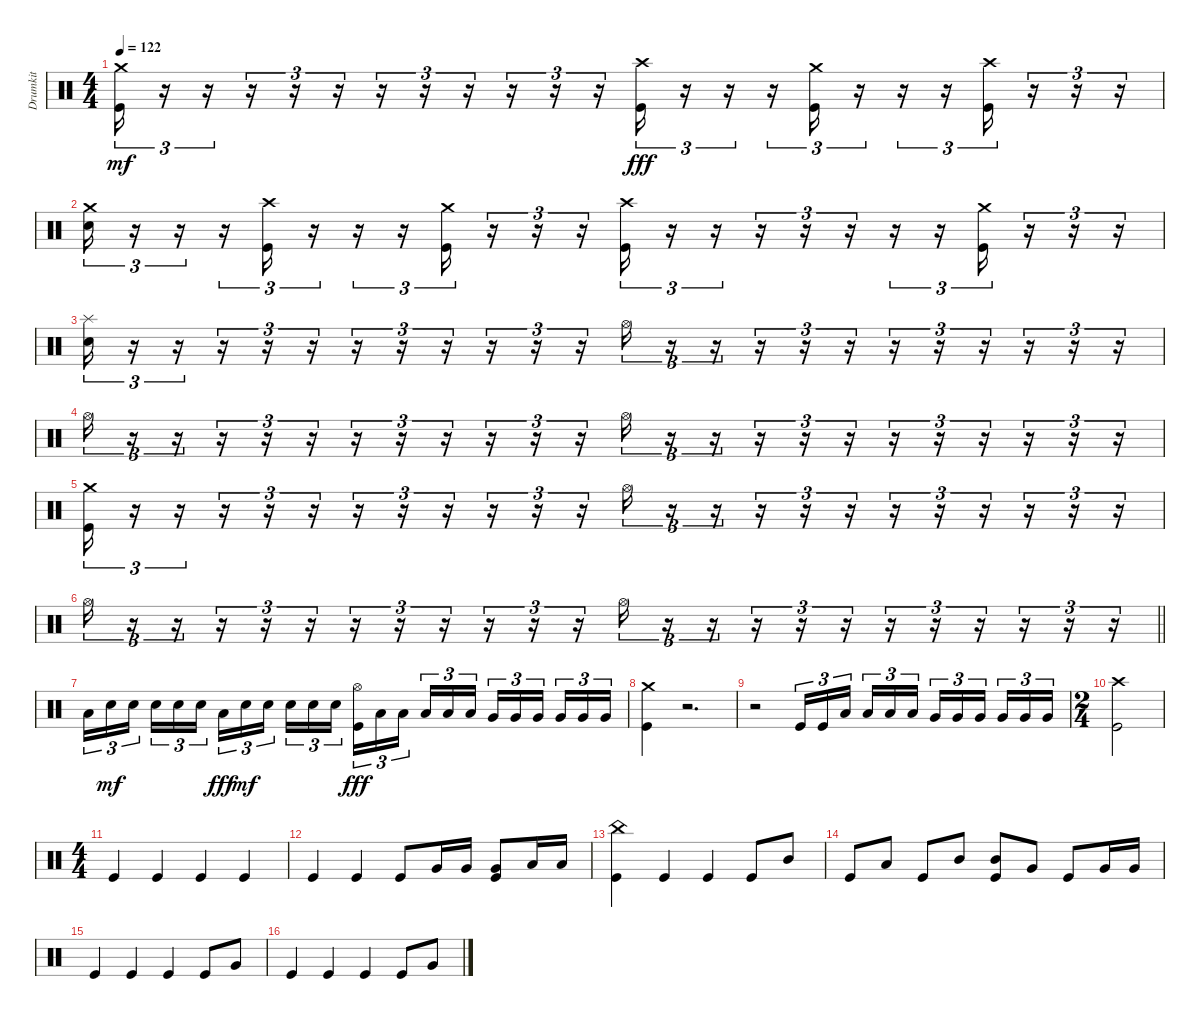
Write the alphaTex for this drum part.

\track ("Drumkit" "Drumkit") {mute instrument percussion}
\staff {score}
\articulation defaults
\ts (4 4)
\tempo 122
\clef neutral
\ks c
("Kick (hit)" "Crash medium (hit)").16{tu (3 2) dy mf} r.16{tu (3 2)} r.16{tu (3 2)} r.16{tu (3 2)} r.16{tu (3 2)} r.16{tu (3 2)} r.16{tu (3 2)} r.16{tu (3 2)} r.16{tu (3 2)} r.16{tu (3 2)} r.16{tu (3 2)} r.16{tu (3 2)} ("Kick (hit)" "Crash high (hit)").16{tu (3 2) dy fff} r.16{tu (3 2)} r.16{tu (3 2)} r.16{tu (3 2)} ("Kick (hit)" "Crash medium (hit)").16{tu (3 2)} r.16{tu (3 2)} r.16{tu (3 2)} r.16{tu (3 2)} ("Kick (hit)" "Crash high (hit)").16{tu (3 2)} r.16{tu (3 2)} r.16{tu (3 2)} r.16{tu (3 2)} |
("Crash medium (hit)" "Snare (hit) 2").16{tu (3 2)} r.16{tu (3 2)} r.16{tu (3 2)} r.16{tu (3 2)} ("Kick (hit)" "Crash high (hit)").16{tu (3 2)} r.16{tu (3 2)} r.16{tu (3 2)} r.16{tu (3 2)} ("Kick (hit)" "Crash medium (hit)").16{tu (3 2)} r.16{tu (3 2)} r.16{tu (3 2)} r.16{tu (3 2)} ("Kick (hit)" "Crash high (hit)").16{tu (3 2)} r.16{tu (3 2)} r.16{tu (3 2)} r.16{tu (3 2)} r.16{tu (3 2)} r.16{tu (3 2)} r.16{tu (3 2)} r.16{tu (3 2)} ("Kick (hit)" "Crash medium (hit)").16{tu (3 2)} r.16{tu (3 2)} r.16{tu (3 2)} r.16{tu (3 2)} |
("Splash (hit)" "Snare (hit) 2").16{tu (3 2)} r.16{tu (3 2)} r.16{tu (3 2)} r.16{tu (3 2)} r.16{tu (3 2)} r.16{tu (3 2)} r.16{tu (3 2)} r.16{tu (3 2)} r.16{tu (3 2)} r.16{tu (3 2)} r.16{tu (3 2)} r.16{tu (3 2)} "Hi-Hat (open)".16{tu (3 2)} r.16{tu (3 2)} r.16{tu (3 2)} r.16{tu (3 2)} r.16{tu (3 2)} r.16{tu (3 2)} r.16{tu (3 2)} r.16{tu (3 2)} r.16{tu (3 2)} r.16{tu (3 2)} r.16{tu (3 2)} r.16{tu (3 2)} |
"Hi-Hat (open)".16{tu (3 2)} r.16{tu (3 2)} r.16{tu (3 2)} r.16{tu (3 2)} r.16{tu (3 2)} r.16{tu (3 2)} r.16{tu (3 2)} r.16{tu (3 2)} r.16{tu (3 2)} r.16{tu (3 2)} r.16{tu (3 2)} r.16{tu (3 2)} "Hi-Hat (open)".16{tu (3 2)} r.16{tu (3 2)} r.16{tu (3 2)} r.16{tu (3 2)} r.16{tu (3 2)} r.16{tu (3 2)} r.16{tu (3 2)} r.16{tu (3 2)} r.16{tu (3 2)} r.16{tu (3 2)} r.16{tu (3 2)} r.16{tu (3 2)} |
("Kick (hit)" "Crash medium (hit)").16{tu (3 2)} r.16{tu (3 2)} r.16{tu (3 2)} r.16{tu (3 2)} r.16{tu (3 2)} r.16{tu (3 2)} r.16{tu (3 2)} r.16{tu (3 2)} r.16{tu (3 2)} r.16{tu (3 2)} r.16{tu (3 2)} r.16{tu (3 2)} "Hi-Hat (open)".16{tu (3 2)} r.16{tu (3 2)} r.16{tu (3 2)} r.16{tu (3 2)} r.16{tu (3 2)} r.16{tu (3 2)} r.16{tu (3 2)} r.16{tu (3 2)} r.16{tu (3 2)} r.16{tu (3 2)} r.16{tu (3 2)} r.16{tu (3 2)} |
\barLineRight lightlight "Hi-Hat (open)".16{tu (3 2)}
r.16{tu (3 2)} r.16{tu (3 2)} r.16{tu (3 2)} r.16{tu (3 2)} r.16{tu (3 2)} r.16{tu (3 2)} r.16{tu (3 2)} r.16{tu (3 2)} r.16{tu (3 2)} r.16{tu (3 2)} r.16{tu (3 2)} "Hi-Hat (open)".16{tu (3 2)} r.16{tu (3 2)} r.16{tu (3 2)} r.16{tu (3 2)} r.16{tu (3 2)} r.16{tu (3 2)} r.16{tu (3 2)} r.16{tu (3 2)} r.16{tu (3 2)} r.16{tu (3 2)} r.16{tu (3 2)} r.16{tu (3 2)} |
"Low Tom (hit)".16{tu (3 2)} "Snare (hit) 2".16{tu (3 2) dy mf} "Snare (hit) 2".16{tu (3 2) beam splitsecondary} "Snare (hit) 2".16{tu (3 2)} "Snare (hit) 2".16{tu (3 2)} "Snare (hit) 2".16{tu (3 2)} "Low Tom (hit)".16{tu (3 2) dy fff} "Snare (hit) 2".16{tu (3 2) dy mf} "Snare (hit) 2".16{tu (3 2) beam splitsecondary} "Snare (hit) 2".16{tu (3 2)} "Snare (hit) 2".16{tu (3 2)} "Snare (hit) 2".16{tu (3 2)} ("Hi-Hat (open)" "Kick (hit)").16{tu (3 2) dy fff} "Low Tom (hit)".16{tu (3 2)} "Low Tom (hit)".16{tu (3 2) beam splitsecondary} "Low Tom (hit)".16{tu (3 2)} "Low Tom (hit)".16{tu (3 2)} "Low Tom (hit)".16{tu (3 2)} "Very Low Tom (hit)".16{tu (3 2)} "Very Low Tom (hit)".16{tu (3 2)} "Very Low Tom (hit)".16{tu (3 2) beam splitsecondary} "Very Low Tom (hit)".16{tu (3 2)} "Very Low Tom (hit)".16{tu (3 2)} "Very Low Tom (hit)".16{tu (3 2)} |
("Kick (hit)" "Crash medium (hit)").4 r.2{d} |
r.2 "Kick (hit)".16{tu (3 2)} "Kick (hit)".16{tu (3 2)} "Low Tom (hit)".16{tu (3 2) beam splitsecondary} "Low Tom (hit)".16{tu (3 2)} "Low Tom (hit)".16{tu (3 2)} "Low Tom (hit)".16{tu (3 2)} "Very Low Tom (hit)".16{tu (3 2)} "Very Low Tom (hit)".16{tu (3 2)} "Very Low Tom (hit)".16{tu (3 2) beam splitsecondary} "Very Low Tom (hit)".16{tu (3 2)} "Very Low Tom (hit)".16{tu (3 2)} "Very Low Tom (hit)".16{tu (3 2)} |
\ts (2 4)
("Kick (hit)" "Crash high (hit)").2 |
\ts (4 4)
"Kick (hit)".4 "Kick (hit)".4 "Kick (hit)".4 "Kick (hit)".4 |
"Kick (hit)".4 "Kick (hit)".4 "Kick (hit)".8 "Very Low Tom (hit)".16 "Very Low Tom (hit)".16 ("Kick (hit)" "Very Low Tom (hit)").8 "Low Floor Tom (hit)".16 "Low Floor Tom (hit)".16 |
("Kick (hit)" "China (hit)").4 "Kick (hit)".4 "Kick (hit)".4 "Kick (hit)".8 "Mid Tom (hit)".8 |
"Kick (hit)".8 "Low Tom (hit)".8 "Kick (hit)".8 "Mid Tom (hit)".8 ("Kick (hit)" "Mid Tom (hit)").8 "Very Low Tom (hit)".8 "Kick (hit)".8 "Very Low Tom (hit)".16 "Very Low Tom (hit)".16 |
"Kick (hit)".4 "Kick (hit)".4 "Kick (hit)".4 "Kick (hit)".8 "Very Low Tom (hit)".8 |
"Kick (hit)".4 "Kick (hit)".4 "Kick (hit)".4 "Kick (hit)".8 "Very Low Tom (hit)".8
